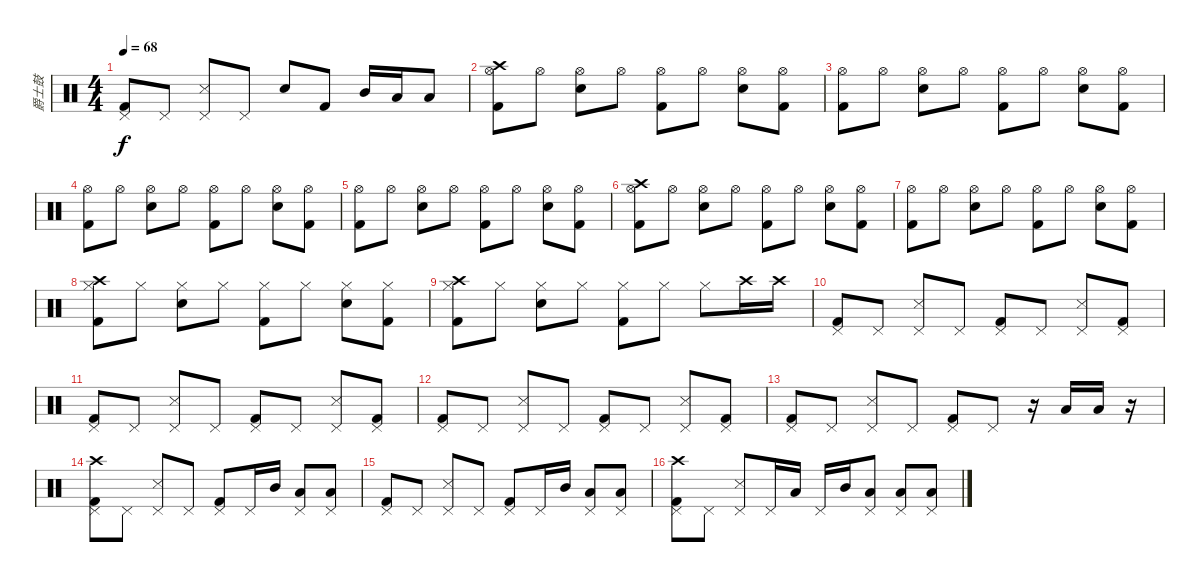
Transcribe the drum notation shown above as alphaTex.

\track ("爵士鼓" "爵士鼓") {instrument percussion}
\staff {score}
\articulation defaults
\ts (4 4)
\tempo 68
\clef neutral
\ks c
("Kick (hit) 2" "Pedal Hi-Hat (hit)").8{dy f} "Pedal Hi-Hat (hit)".8 ("Snare (side stick) 3" "Pedal Hi-Hat (hit)").8 "Pedal Hi-Hat (hit)".8 "Snare (hit) 2".8 "Kick (hit) 2".8 "Mid Tom (hit)".16 "Low Tom (hit)".16 "Low Floor Tom (hit)".8 |
("Crash high (hit)" "Kick (hit) 2" "Hi-Hat (open)").8 "Hi-Hat (open)".8 ("Snare (hit) 2" "Hi-Hat (open)").8 "Hi-Hat (open)".8 ("Kick (hit) 2" "Hi-Hat (open)").8 "Hi-Hat (open)".8 ("Snare (hit) 2" "Hi-Hat (open)").8 ("Kick (hit) 2" "Hi-Hat (open)").8 |
("Kick (hit) 2" "Hi-Hat (open)").8 "Hi-Hat (open)".8 ("Snare (hit) 2" "Hi-Hat (open)").8 "Hi-Hat (open)".8 ("Kick (hit) 2" "Hi-Hat (open)").8 "Hi-Hat (open)".8 ("Snare (hit) 2" "Hi-Hat (open)").8 ("Kick (hit) 2" "Hi-Hat (open)").8 |
("Kick (hit) 2" "Hi-Hat (open)").8 "Hi-Hat (open)".8 ("Snare (hit) 2" "Hi-Hat (open)").8 "Hi-Hat (open)".8 ("Kick (hit) 2" "Hi-Hat (open)").8 "Hi-Hat (open)".8 ("Snare (hit) 2" "Hi-Hat (open)").8 ("Kick (hit) 2" "Hi-Hat (open)").8 |
("Kick (hit) 2" "Hi-Hat (open)").8 "Hi-Hat (open)".8 ("Snare (hit) 2" "Hi-Hat (open)").8 "Hi-Hat (open)".8 ("Kick (hit) 2" "Hi-Hat (open)").8 "Hi-Hat (open)".8 ("Snare (hit) 2" "Hi-Hat (open)").8 ("Kick (hit) 2" "Hi-Hat (open)").8 |
("Crash high (hit)" "Kick (hit) 2" "Hi-Hat (open)").8 "Hi-Hat (open)".8 ("Snare (hit) 2" "Hi-Hat (open)").8 "Hi-Hat (open)".8 ("Kick (hit) 2" "Hi-Hat (open)").8 "Hi-Hat (open)".8 ("Snare (hit) 2" "Hi-Hat (open)").8 ("Kick (hit) 2" "Hi-Hat (open)").8 |
("Kick (hit) 2" "Hi-Hat (open)").8 "Hi-Hat (open)".8 ("Snare (hit) 2" "Hi-Hat (open)").8 "Hi-Hat (open)".8 ("Kick (hit) 2" "Hi-Hat (open)").8 "Hi-Hat (open)".8 ("Snare (hit) 2" "Hi-Hat (open)").8 ("Kick (hit) 2" "Hi-Hat (open)").8 |
("Crash high (hit)" "Kick (hit) 2" "Hi-Hat (closed)").8 "Hi-Hat (closed)".8 ("Snare (hit) 2" "Hi-Hat (closed)").8 "Hi-Hat (closed)".8 ("Kick (hit) 2" "Hi-Hat (closed)").8 "Hi-Hat (closed)".8 ("Snare (hit) 2" "Hi-Hat (closed)").8 ("Kick (hit) 2" "Hi-Hat (closed)").8 |
("Crash high (hit)" "Kick (hit) 2" "Hi-Hat (closed)").8 "Hi-Hat (closed)".8 ("Snare (hit) 2" "Hi-Hat (closed)").8 "Hi-Hat (closed)".8 ("Kick (hit) 2" "Hi-Hat (closed)").8 "Hi-Hat (closed)".8 "Hi-Hat (closed)".8 "Crash high (hit)".16 "Crash high (hit)".16 |
("Kick (hit) 2" "Pedal Hi-Hat (hit)").8 "Pedal Hi-Hat (hit)".8 ("Snare (side stick) 3" "Pedal Hi-Hat (hit)").8 "Pedal Hi-Hat (hit)".8 ("Kick (hit) 2" "Pedal Hi-Hat (hit)").8 "Pedal Hi-Hat (hit)".8 ("Snare (side stick) 3" "Pedal Hi-Hat (hit)").8 ("Kick (hit) 2" "Pedal Hi-Hat (hit)").8 |
("Kick (hit) 2" "Pedal Hi-Hat (hit)").8 "Pedal Hi-Hat (hit)".8 ("Snare (side stick) 3" "Pedal Hi-Hat (hit)").8 "Pedal Hi-Hat (hit)".8 ("Kick (hit) 2" "Pedal Hi-Hat (hit)").8 "Pedal Hi-Hat (hit)".8 ("Snare (side stick) 3" "Pedal Hi-Hat (hit)").8 ("Kick (hit) 2" "Pedal Hi-Hat (hit)").8 |
("Kick (hit) 2" "Pedal Hi-Hat (hit)").8 "Pedal Hi-Hat (hit)".8 ("Snare (side stick) 3" "Pedal Hi-Hat (hit)").8 "Pedal Hi-Hat (hit)".8 ("Kick (hit) 2" "Pedal Hi-Hat (hit)").8 "Pedal Hi-Hat (hit)".8 ("Snare (side stick) 3" "Pedal Hi-Hat (hit)").8 ("Kick (hit) 2" "Pedal Hi-Hat (hit)").8 |
("Kick (hit) 2" "Pedal Hi-Hat (hit)").8 "Pedal Hi-Hat (hit)".8 ("Snare (side stick) 3" "Pedal Hi-Hat (hit)").8 "Pedal Hi-Hat (hit)".8 ("Kick (hit) 2" "Pedal Hi-Hat (hit)").8 "Pedal Hi-Hat (hit)".8 r.16 "Low Tom (hit)".16 "Low Floor Tom (hit)".16 r.16 |
("Crash high (hit)" "Kick (hit) 2" "Pedal Hi-Hat (hit)").8 "Pedal Hi-Hat (hit)".8 ("Snare (side stick) 3" "Pedal Hi-Hat (hit)").8 "Pedal Hi-Hat (hit)".8 ("Kick (hit) 2" "Pedal Hi-Hat (hit)").8 "Pedal Hi-Hat (hit)".16 "Mid Tom (hit)".16 ("Low Tom (hit)" "Pedal Hi-Hat (hit)").8 ("Low Floor Tom (hit)" "Pedal Hi-Hat (hit)").8 |
("Kick (hit) 2" "Pedal Hi-Hat (hit)").8 "Pedal Hi-Hat (hit)".8 ("Snare (side stick) 3" "Pedal Hi-Hat (hit)").8 "Pedal Hi-Hat (hit)".8 ("Kick (hit) 2" "Pedal Hi-Hat (hit)").8 "Pedal Hi-Hat (hit)".16 "Mid Tom (hit)".16 ("Low Tom (hit)" "Pedal Hi-Hat (hit)").8 ("Low Floor Tom (hit)" "Pedal Hi-Hat (hit)").8 |
("Crash high (hit)" "Kick (hit) 2" "Pedal Hi-Hat (hit)").8 "Pedal Hi-Hat (hit)".8 ("Snare (side stick) 3" "Pedal Hi-Hat (hit)").8 "Pedal Hi-Hat (hit)".16 "Low Floor Tom (hit)".16 "Pedal Hi-Hat (hit)".16 "Mid Tom (hit)".16 ("Low Tom (hit)" "Pedal Hi-Hat (hit)").8 ("Low Floor Tom (hit)" "Pedal Hi-Hat (hit)").8 ("Low Floor Tom (hit)" "Pedal Hi-Hat (hit)").8
